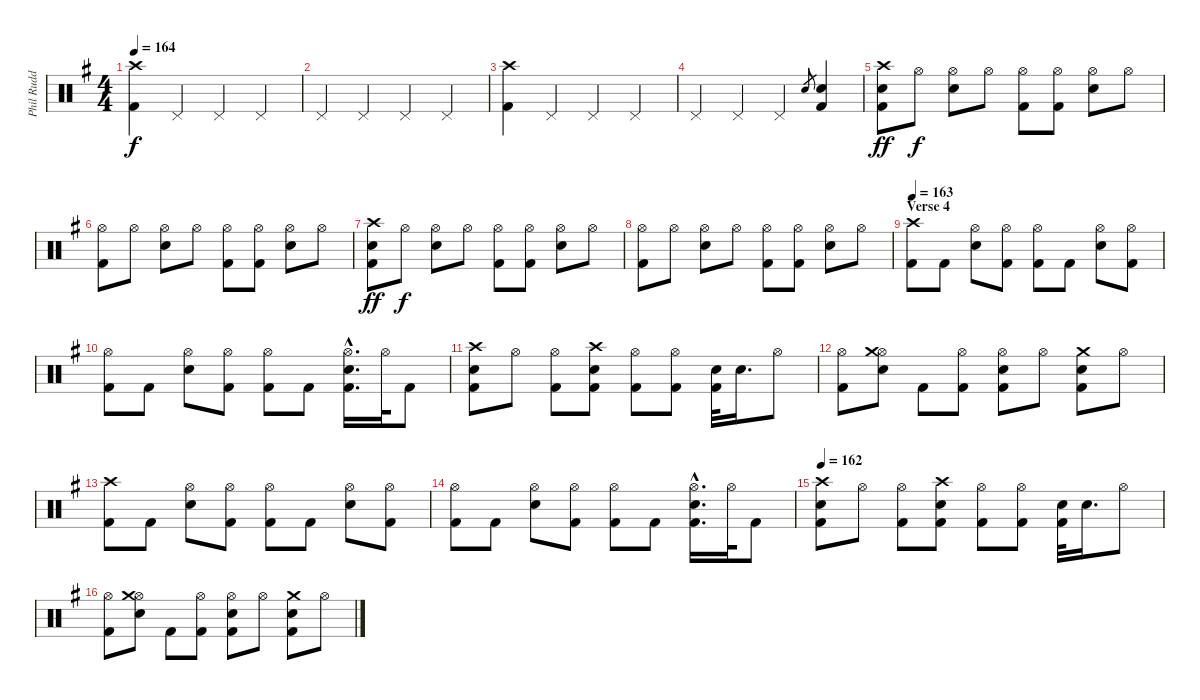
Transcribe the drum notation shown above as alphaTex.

\track ("Phil Rudd" "Phil Rudd") {instrument percussion}
\staff {score}
\articulation defaults
\ts (4 4)
\tempo 164
\clef neutral
\ks eminor
("Kick (hit) 2" "Crash high (hit)").4{dy f} "Pedal Hi-Hat (hit)".4 "Pedal Hi-Hat (hit)".4 "Pedal Hi-Hat (hit)".4 |
"Pedal Hi-Hat (hit)".4 "Pedal Hi-Hat (hit)".4 "Pedal Hi-Hat (hit)".4 "Pedal Hi-Hat (hit)".4 |
("Kick (hit) 2" "Crash high (hit)").4 "Pedal Hi-Hat (hit)".4 "Pedal Hi-Hat (hit)".4 "Pedal Hi-Hat (hit)".4 |
"Pedal Hi-Hat (hit)".4 "Pedal Hi-Hat (hit)".4 "Pedal Hi-Hat (hit)".4 "Snare (hit) 2".8{gr} ("Snare (hit) 2" "Kick (hit) 2").4 |
("Crash high (hit)" "Snare (hit) 2" "Kick (hit) 2").8{dy ff} "Hi-Hat (open)".8{dy f} ("Snare (hit) 2" "Hi-Hat (open)").8 "Hi-Hat (open)".8 ("Hi-Hat (open)" "Kick (hit) 2").8 ("Hi-Hat (open)" "Kick (hit) 2").8 ("Snare (hit) 2" "Hi-Hat (open)").8 "Hi-Hat (open)".8 |
("Hi-Hat (open)" "Kick (hit) 2").8 "Hi-Hat (open)".8 ("Snare (hit) 2" "Hi-Hat (open)").8 "Hi-Hat (open)".8 ("Hi-Hat (open)" "Kick (hit) 2").8 ("Hi-Hat (open)" "Kick (hit) 2").8 ("Snare (hit) 2" "Hi-Hat (open)").8 "Hi-Hat (open)".8 |
("Crash high (hit)" "Snare (hit) 2" "Kick (hit) 2").8{dy ff} "Hi-Hat (open)".8{dy f} ("Snare (hit) 2" "Hi-Hat (open)").8 "Hi-Hat (open)".8 ("Hi-Hat (open)" "Kick (hit) 2").8 ("Hi-Hat (open)" "Kick (hit) 2").8 ("Snare (hit) 2" "Hi-Hat (open)").8 "Hi-Hat (open)".8 |
("Hi-Hat (open)" "Kick (hit) 2").8 "Hi-Hat (open)".8 ("Snare (hit) 2" "Hi-Hat (open)").8 "Hi-Hat (open)".8 ("Hi-Hat (open)" "Kick (hit) 2").8 ("Hi-Hat (open)" "Kick (hit) 2").8 ("Snare (hit) 2" "Hi-Hat (open)").8 "Hi-Hat (open)".8 |
\section ("" "Verse 4")
\tempo 163
\ks g
("Crash high (hit)" "Kick (hit) 2").8 "Kick (hit) 2".8 ("Hi-Hat (open)" "Snare (hit) 2").8 ("Kick (hit) 2" "Hi-Hat (open)").8 ("Hi-Hat (open)" "Kick (hit) 2").8 "Kick (hit) 2".8 ("Hi-Hat (open)" "Snare (hit) 2").8 ("Hi-Hat (open)" "Kick (hit) 2").8 |
("Hi-Hat (open)" "Kick (hit) 2").8 "Kick (hit) 2".8 ("Hi-Hat (open)" "Snare (hit) 2").8 ("Hi-Hat (open)" "Kick (hit) 2").8 ("Hi-Hat (open)" "Kick (hit) 2").8 "Kick (hit) 2".8 ("Kick (hit) 2" "Hi-Hat (open)"{hac} "Snare (hit) 2").16{d} "Hi-Hat (open)".32 "Kick (hit) 2".8 |
("Crash high (hit)" "Snare (hit) 2" "Kick (hit) 2").8 "Hi-Hat (open)".8 ("Hi-Hat (open)" "Kick (hit) 2").8 ("Crash high (hit)" "Snare (hit) 2" "Kick (hit) 2").8 ("Hi-Hat (open)" "Kick (hit) 2").8 ("Kick (hit) 2" "Hi-Hat (open)").8 ("Snare (hit) 2" "Kick (hit) 2").32 "Snare (hit) 2".16{d} "Hi-Hat (open)".8 |
("Kick (hit) 2" "Hi-Hat (open)").8 ("Hi-Hat (open)" "Crash medium (hit)" "Snare (hit) 2").8 "Kick (hit) 2".8 ("Kick (hit) 2" "Hi-Hat (open)").8 ("Hi-Hat (open)" "Kick (hit) 2" "Snare (hit) 2").8 "Hi-Hat (open)".8 ("Snare (hit) 2" "Kick (hit) 2" "Crash medium (hit)").8 "Hi-Hat (open)".8 |
("Crash high (hit)" "Kick (hit) 2").8 "Kick (hit) 2".8 ("Hi-Hat (open)" "Snare (hit) 2").8 ("Kick (hit) 2" "Hi-Hat (open)").8 ("Hi-Hat (open)" "Kick (hit) 2").8 "Kick (hit) 2".8 ("Hi-Hat (open)" "Snare (hit) 2").8 ("Hi-Hat (open)" "Kick (hit) 2").8 |
("Hi-Hat (open)" "Kick (hit) 2").8 "Kick (hit) 2".8 ("Hi-Hat (open)" "Snare (hit) 2").8 ("Hi-Hat (open)" "Kick (hit) 2").8 ("Hi-Hat (open)" "Kick (hit) 2").8 "Kick (hit) 2".8 ("Kick (hit) 2" "Hi-Hat (open)"{hac} "Snare (hit) 2").16{d} "Hi-Hat (open)".32 "Kick (hit) 2".8 |
\tempo 162
("Crash high (hit)" "Snare (hit) 2" "Kick (hit) 2").8 "Hi-Hat (open)".8 ("Hi-Hat (open)" "Kick (hit) 2").8 ("Crash high (hit)" "Snare (hit) 2" "Kick (hit) 2").8 ("Hi-Hat (open)" "Kick (hit) 2").8 ("Kick (hit) 2" "Hi-Hat (open)").8 ("Snare (hit) 2" "Kick (hit) 2").32 "Snare (hit) 2".16{d} "Hi-Hat (open)".8 |
("Kick (hit) 2" "Hi-Hat (open)").8 ("Hi-Hat (open)" "Crash medium (hit)" "Snare (hit) 2").8 "Kick (hit) 2".8 ("Kick (hit) 2" "Hi-Hat (open)").8 ("Hi-Hat (open)" "Kick (hit) 2" "Snare (hit) 2").8 "Hi-Hat (open)".8 ("Snare (hit) 2" "Kick (hit) 2" "Crash medium (hit)").8 "Hi-Hat (open)".8
